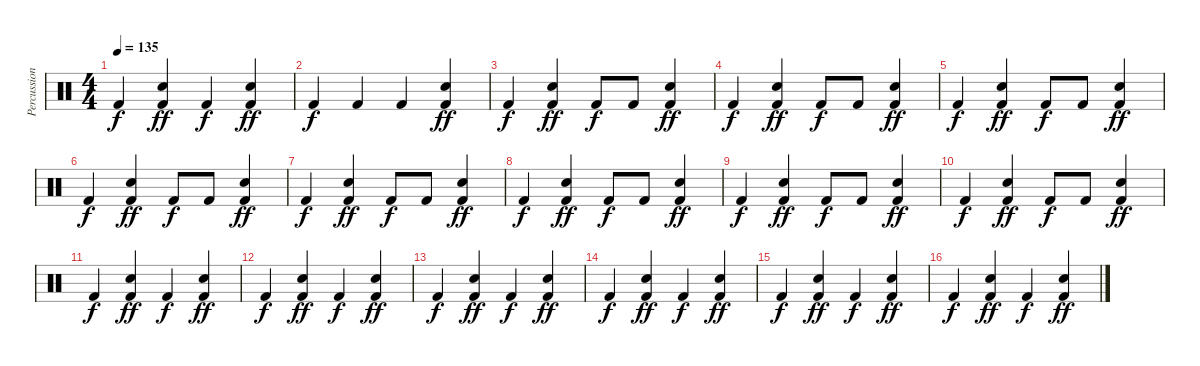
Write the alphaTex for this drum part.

\track ("Percussion" "Percussion") {instrument percussion}
\staff {score}
\articulation defaults
\ts (4 4)
\tempo 135
\clef neutral
\ks c "Kick (hit) 2".4{dy f}
("Electric Snare (hit)" "Kick (hit) 2").4{dy ff} "Kick (hit) 2".4{dy f} ("Electric Snare (hit)" "Kick (hit) 2").4{dy ff} |
"Kick (hit) 2".4{dy f} "Kick (hit) 2".4 "Kick (hit) 2".4 ("Electric Snare (hit)" "Kick (hit) 2").4{dy ff} |
"Kick (hit) 2".4{dy f} ("Electric Snare (hit)" "Kick (hit) 2").4{dy ff} "Kick (hit) 2".8{dy f} "Kick (hit) 2".8 ("Electric Snare (hit)" "Kick (hit) 2").4{dy ff} |
"Kick (hit) 2".4{dy f} ("Electric Snare (hit)" "Kick (hit) 2").4{dy ff} "Kick (hit) 2".8{dy f} "Kick (hit) 2".8 ("Electric Snare (hit)" "Kick (hit) 2").4{dy ff} |
"Kick (hit) 2".4{dy f} ("Electric Snare (hit)" "Kick (hit) 2").4{dy ff} "Kick (hit) 2".8{dy f} "Kick (hit) 2".8 ("Electric Snare (hit)" "Kick (hit) 2").4{dy ff} |
"Kick (hit) 2".4{dy f} ("Electric Snare (hit)" "Kick (hit) 2").4{dy ff} "Kick (hit) 2".8{dy f} "Kick (hit) 2".8 ("Electric Snare (hit)" "Kick (hit) 2").4{dy ff} |
"Kick (hit) 2".4{dy f} ("Electric Snare (hit)" "Kick (hit) 2").4{dy ff} "Kick (hit) 2".8{dy f} "Kick (hit) 2".8 ("Electric Snare (hit)" "Kick (hit) 2").4{dy ff} |
"Kick (hit) 2".4{dy f} ("Electric Snare (hit)" "Kick (hit) 2").4{dy ff} "Kick (hit) 2".8{dy f} "Kick (hit) 2".8 ("Electric Snare (hit)" "Kick (hit) 2").4{dy ff} |
"Kick (hit) 2".4{dy f} ("Electric Snare (hit)" "Kick (hit) 2").4{dy ff} "Kick (hit) 2".8{dy f} "Kick (hit) 2".8 ("Electric Snare (hit)" "Kick (hit) 2").4{dy ff} |
"Kick (hit) 2".4{dy f} ("Electric Snare (hit)" "Kick (hit) 2").4{dy ff} "Kick (hit) 2".8{dy f} "Kick (hit) 2".8 ("Electric Snare (hit)" "Kick (hit) 2").4{dy ff} |
"Kick (hit) 2".4{dy f} ("Electric Snare (hit)" "Kick (hit) 2").4{dy ff} "Kick (hit) 2".4{dy f} ("Electric Snare (hit)" "Kick (hit) 2").4{dy ff} |
"Kick (hit) 2".4{dy f} ("Electric Snare (hit)" "Kick (hit) 2").4{dy ff} "Kick (hit) 2".4{dy f} ("Electric Snare (hit)" "Kick (hit) 2").4{dy ff} |
"Kick (hit) 2".4{dy f} ("Electric Snare (hit)" "Kick (hit) 2").4{dy ff} "Kick (hit) 2".4{dy f} ("Electric Snare (hit)" "Kick (hit) 2").4{dy ff} |
"Kick (hit) 2".4{dy f} ("Electric Snare (hit)" "Kick (hit) 2").4{dy ff} "Kick (hit) 2".4{dy f} ("Electric Snare (hit)" "Kick (hit) 2").4{dy ff} |
"Kick (hit) 2".4{dy f} ("Electric Snare (hit)" "Kick (hit) 2").4{dy ff} "Kick (hit) 2".4{dy f} ("Electric Snare (hit)" "Kick (hit) 2").4{dy ff} |
"Kick (hit) 2".4{dy f} ("Electric Snare (hit)" "Kick (hit) 2").4{dy ff} "Kick (hit) 2".4{dy f} ("Electric Snare (hit)" "Kick (hit) 2").4{dy ff}
